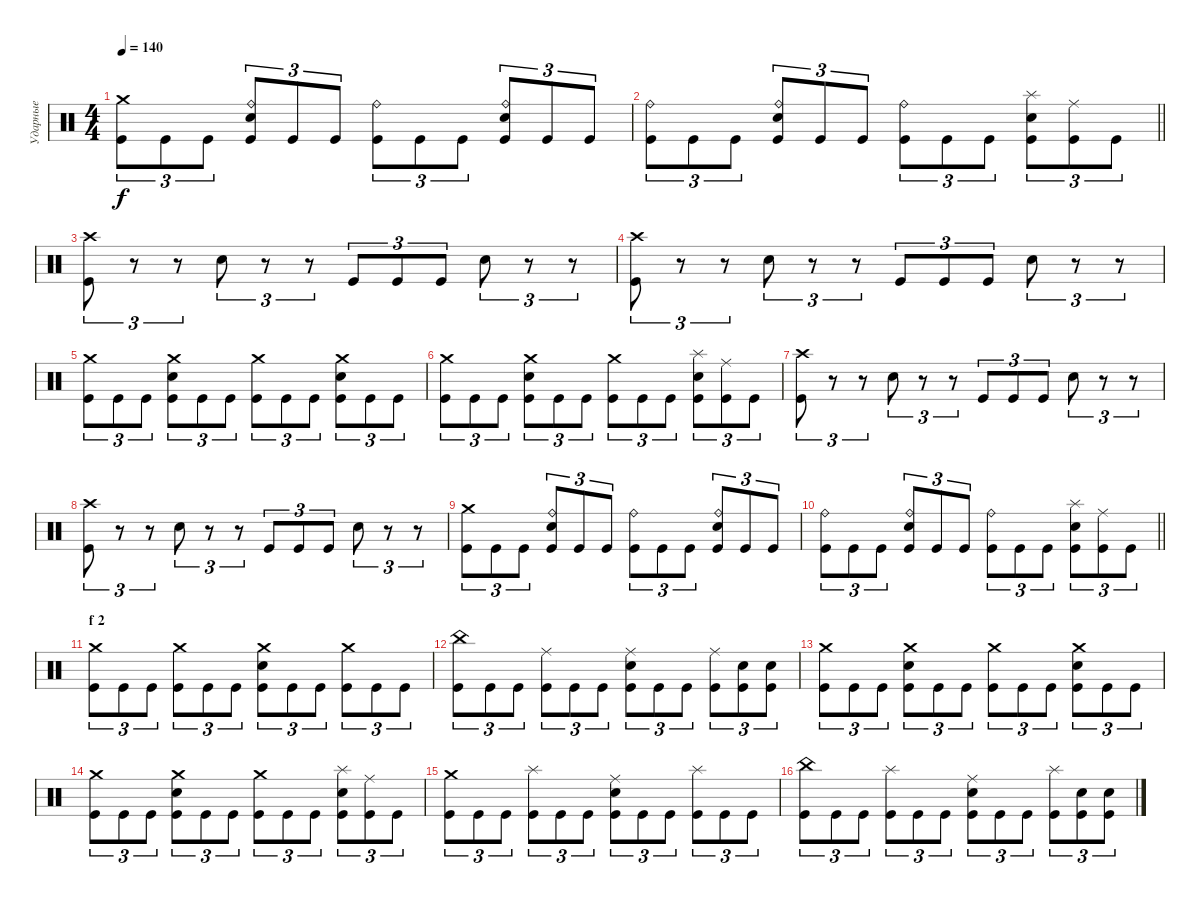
\track ("Ударные" "Ударные") {instrument percussion}
\staff {score}
\articulation defaults
\ts (4 4)
\tempo 140
\clef neutral
\ks c
("Crash medium (hit)" "Kick (hit)").8{tu (3 2) dy f} "Kick (hit)".8{tu (3 2)} "Kick (hit)".8{tu (3 2)} ("Ride (bell)" "Electric Snare (hit)" "Kick (hit)").8{tu (3 2)} "Kick (hit)".8{tu (3 2)} "Kick (hit)".8{tu (3 2)} ("Ride (bell)" "Kick (hit)").8{tu (3 2)} "Kick (hit)".8{tu (3 2)} "Kick (hit)".8{tu (3 2)} ("Ride (bell)" "Electric Snare (hit)" "Kick (hit)").8{tu (3 2)} "Kick (hit)".8{tu (3 2)} "Kick (hit)".8{tu (3 2)} |
\barLineRight lightlight
("Ride (bell)" "Kick (hit)").8{tu (3 2)} "Kick (hit)".8{tu (3 2)} "Kick (hit)".8{tu (3 2)} ("Ride (bell)" "Electric Snare (hit)" "Kick (hit)").8{tu (3 2)} "Kick (hit)".8{tu (3 2)} "Kick (hit)".8{tu (3 2)} ("Ride (bell)" "Kick (hit)").8{tu (3 2)} "Kick (hit)".8{tu (3 2)} "Kick (hit)".8{tu (3 2)} ("Splash (hit)" "Electric Snare (hit)" "Kick (hit)").8{tu (3 2)} ("Ride (middle)" "Kick (hit)").8{tu (3 2)} "Kick (hit)".8{tu (3 2)} |
("Crash high (hit)" "Kick (hit)").8{tu (3 2)} r.8{tu (3 2)} r.8{tu (3 2)} "Electric Snare (hit)".8{tu (3 2)} r.8{tu (3 2)} r.8{tu (3 2)} "Kick (hit)".8{tu (3 2)} "Kick (hit)".8{tu (3 2)} "Kick (hit)".8{tu (3 2)} "Electric Snare (hit)".8{tu (3 2)} r.8{tu (3 2)} r.8{tu (3 2)} |
("Crash high (hit)" "Kick (hit)").8{tu (3 2)} r.8{tu (3 2)} r.8{tu (3 2)} "Electric Snare (hit)".8{tu (3 2)} r.8{tu (3 2)} r.8{tu (3 2)} "Kick (hit)".8{tu (3 2)} "Kick (hit)".8{tu (3 2)} "Kick (hit)".8{tu (3 2)} "Electric Snare (hit)".8{tu (3 2)} r.8{tu (3 2)} r.8{tu (3 2)} |
("Crash medium (hit)" "Kick (hit)").8{tu (3 2)} "Kick (hit)".8{tu (3 2)} "Kick (hit)".8{tu (3 2)} ("Crash medium (hit)" "Electric Snare (hit)" "Kick (hit)").8{tu (3 2)} "Kick (hit)".8{tu (3 2)} "Kick (hit)".8{tu (3 2)} ("Crash medium (hit)" "Kick (hit)").8{tu (3 2)} "Kick (hit)".8{tu (3 2)} "Kick (hit)".8{tu (3 2)} ("Crash medium (hit)" "Electric Snare (hit)" "Kick (hit)").8{tu (3 2)} "Kick (hit)".8{tu (3 2)} "Kick (hit)".8{tu (3 2)} |
("Crash medium (hit)" "Kick (hit)").8{tu (3 2)} "Kick (hit)".8{tu (3 2)} "Kick (hit)".8{tu (3 2)} ("Crash medium (hit)" "Electric Snare (hit)" "Kick (hit)").8{tu (3 2)} "Kick (hit)".8{tu (3 2)} "Kick (hit)".8{tu (3 2)} ("Crash medium (hit)" "Kick (hit)").8{tu (3 2)} "Kick (hit)".8{tu (3 2)} "Kick (hit)".8{tu (3 2)} ("Splash (hit)" "Electric Snare (hit)" "Kick (hit)").8{tu (3 2)} ("Ride (middle)" "Kick (hit)").8{tu (3 2)} "Kick (hit)".8{tu (3 2)} |
("Crash high (hit)" "Kick (hit)").8{tu (3 2)} r.8{tu (3 2)} r.8{tu (3 2)} "Electric Snare (hit)".8{tu (3 2)} r.8{tu (3 2)} r.8{tu (3 2)} "Kick (hit)".8{tu (3 2)} "Kick (hit)".8{tu (3 2)} "Kick (hit)".8{tu (3 2)} "Electric Snare (hit)".8{tu (3 2)} r.8{tu (3 2)} r.8{tu (3 2)} |
("Crash high (hit)" "Kick (hit)").8{tu (3 2)} r.8{tu (3 2)} r.8{tu (3 2)} "Electric Snare (hit)".8{tu (3 2)} r.8{tu (3 2)} r.8{tu (3 2)} "Kick (hit)".8{tu (3 2)} "Kick (hit)".8{tu (3 2)} "Kick (hit)".8{tu (3 2)} "Electric Snare (hit)".8{tu (3 2)} r.8{tu (3 2)} r.8{tu (3 2)} |
("Crash medium (hit)" "Kick (hit)").8{tu (3 2)} "Kick (hit)".8{tu (3 2)} "Kick (hit)".8{tu (3 2)} ("Ride (bell)" "Electric Snare (hit)" "Kick (hit)").8{tu (3 2)} "Kick (hit)".8{tu (3 2)} "Kick (hit)".8{tu (3 2)} ("Ride (bell)" "Kick (hit)").8{tu (3 2)} "Kick (hit)".8{tu (3 2)} "Kick (hit)".8{tu (3 2)} ("Ride (bell)" "Electric Snare (hit)" "Kick (hit)").8{tu (3 2)} "Kick (hit)".8{tu (3 2)} "Kick (hit)".8{tu (3 2)} |
\barLineRight lightlight
("Ride (bell)" "Kick (hit)").8{tu (3 2)} "Kick (hit)".8{tu (3 2)} "Kick (hit)".8{tu (3 2)} ("Ride (bell)" "Electric Snare (hit)" "Kick (hit)").8{tu (3 2)} "Kick (hit)".8{tu (3 2)} "Kick (hit)".8{tu (3 2)} ("Ride (bell)" "Kick (hit)").8{tu (3 2)} "Kick (hit)".8{tu (3 2)} "Kick (hit)".8{tu (3 2)} ("Splash (hit)" "Electric Snare (hit)" "Kick (hit)").8{tu (3 2)} ("Ride (middle)" "Kick (hit)").8{tu (3 2)} "Kick (hit)".8{tu (3 2)} |
\section ("" "f 2")
("Crash medium (hit)" "Kick (hit)").8{tu (3 2)} "Kick (hit)".8{tu (3 2)} "Kick (hit)".8{tu (3 2)} ("Crash medium (hit)" "Kick (hit)").8{tu (3 2)} "Kick (hit)".8{tu (3 2)} "Kick (hit)".8{tu (3 2)} ("Crash medium (hit)" "Electric Snare (hit)" "Kick (hit)").8{tu (3 2)} "Kick (hit)".8{tu (3 2)} "Kick (hit)".8{tu (3 2)} ("Crash medium (hit)" "Kick (hit)").8{tu (3 2)} "Kick (hit)".8{tu (3 2)} "Kick (hit)".8{tu (3 2)} |
("China (hit)" "Kick (hit)").8{tu (3 2)} "Kick (hit)".8{tu (3 2)} "Kick (hit)".8{tu (3 2)} ("Ride (middle)" "Kick (hit)").8{tu (3 2)} "Kick (hit)".8{tu (3 2)} "Kick (hit)".8{tu (3 2)} ("Ride (middle)" "Electric Snare (hit)" "Kick (hit)").8{tu (3 2)} "Kick (hit)".8{tu (3 2)} "Kick (hit)".8{tu (3 2)} ("Ride (middle)" "Kick (hit)").8{tu (3 2)} ("Electric Snare (hit)" "Kick (hit)").8{tu (3 2)} ("Electric Snare (hit)" "Kick (hit)").8{tu (3 2)} |
("Crash medium (hit)" "Kick (hit)").8{tu (3 2)} "Kick (hit)".8{tu (3 2)} "Kick (hit)".8{tu (3 2)} ("Crash medium (hit)" "Electric Snare (hit)" "Kick (hit)").8{tu (3 2)} "Kick (hit)".8{tu (3 2)} "Kick (hit)".8{tu (3 2)} ("Crash medium (hit)" "Kick (hit)").8{tu (3 2)} "Kick (hit)".8{tu (3 2)} "Kick (hit)".8{tu (3 2)} ("Crash medium (hit)" "Electric Snare (hit)" "Kick (hit)").8{tu (3 2)} "Kick (hit)".8{tu (3 2)} "Kick (hit)".8{tu (3 2)} |
("Crash medium (hit)" "Kick (hit)").8{tu (3 2)} "Kick (hit)".8{tu (3 2)} "Kick (hit)".8{tu (3 2)} ("Crash medium (hit)" "Electric Snare (hit)" "Kick (hit)").8{tu (3 2)} "Kick (hit)".8{tu (3 2)} "Kick (hit)".8{tu (3 2)} ("Crash medium (hit)" "Kick (hit)").8{tu (3 2)} "Kick (hit)".8{tu (3 2)} "Kick (hit)".8{tu (3 2)} ("Splash (hit)" "Electric Snare (hit)" "Kick (hit)").8{tu (3 2)} ("Ride (middle)" "Kick (hit)").8{tu (3 2)} "Kick (hit)".8{tu (3 2)} |
("Crash medium (hit)" "Kick (hit)").8{tu (3 2)} "Kick (hit)".8{tu (3 2)} "Kick (hit)".8{tu (3 2)} ("Splash (hit)" "Kick (hit)").8{tu (3 2)} "Kick (hit)".8{tu (3 2)} "Kick (hit)".8{tu (3 2)} ("Ride (middle)" "Electric Snare (hit)" "Kick (hit)").8{tu (3 2)} "Kick (hit)".8{tu (3 2)} "Kick (hit)".8{tu (3 2)} ("Splash (hit)" "Kick (hit)").8{tu (3 2)} "Kick (hit)".8{tu (3 2)} "Kick (hit)".8{tu (3 2)} |
("China (hit)" "Kick (hit)").8{tu (3 2)} "Kick (hit)".8{tu (3 2)} "Kick (hit)".8{tu (3 2)} ("Splash (hit)" "Kick (hit)").8{tu (3 2)} "Kick (hit)".8{tu (3 2)} "Kick (hit)".8{tu (3 2)} ("Ride (middle)" "Electric Snare (hit)" "Kick (hit)").8{tu (3 2)} "Kick (hit)".8{tu (3 2)} "Kick (hit)".8{tu (3 2)} ("Splash (hit)" "Kick (hit)").8{tu (3 2)} ("Electric Snare (hit)" "Kick (hit)").8{tu (3 2)} ("Electric Snare (hit)" "Kick (hit)").8{tu (3 2)}
